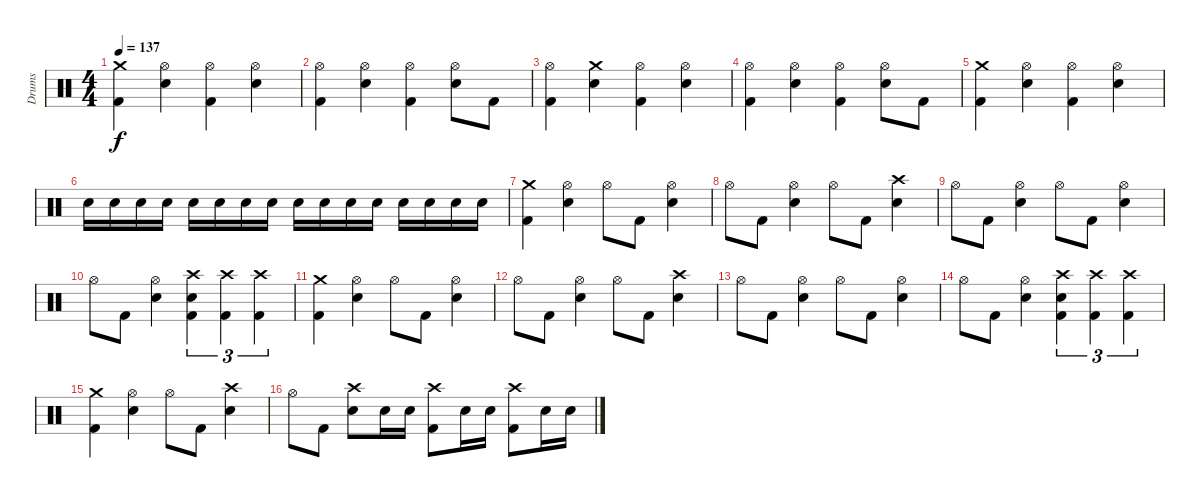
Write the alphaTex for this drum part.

\track ("Drums" "Drums") {instrument percussion}
\staff {score}
\articulation defaults
\ts (4 4)
\tempo 137
\clef neutral
\ks c
("Crash medium (hit)" "Kick (hit) 2").4{dy f} ("Hi-Hat (open)" "Snare (hit) 2").4 ("Hi-Hat (open)" "Kick (hit) 2").4 ("Hi-Hat (open)" "Snare (hit) 2").4 |
("Hi-Hat (open)" "Kick (hit) 2").4 ("Hi-Hat (open)" "Snare (hit) 2").4 ("Hi-Hat (open)" "Kick (hit) 2").4 ("Hi-Hat (open)" "Snare (hit) 2").8 "Kick (hit) 2".8 |
("Hi-Hat (open)" "Kick (hit) 2").4 ("Crash medium (hit)" "Snare (hit) 2").4 ("Hi-Hat (open)" "Kick (hit) 2").4 ("Hi-Hat (open)" "Snare (hit) 2").4 |
("Hi-Hat (open)" "Kick (hit) 2").4 ("Hi-Hat (open)" "Snare (hit) 2").4 ("Hi-Hat (open)" "Kick (hit) 2").4 ("Hi-Hat (open)" "Snare (hit) 2").8 "Kick (hit) 2".8 |
("Crash medium (hit)" "Kick (hit) 2").4 ("Hi-Hat (open)" "Snare (hit) 2").4 ("Hi-Hat (open)" "Kick (hit) 2").4 ("Hi-Hat (open)" "Snare (hit) 2").4 |
"Snare (hit) 2".16 "Snare (hit) 2".16 "Snare (hit) 2".16 "Snare (hit) 2".16 "Snare (hit) 2".16 "Snare (hit) 2".16 "Snare (hit) 2".16 "Snare (hit) 2".16 "Snare (hit) 2".16 "Snare (hit) 2".16 "Snare (hit) 2".16 "Snare (hit) 2".16 "Snare (hit) 2".16 "Snare (hit) 2".16 "Snare (hit) 2".16 "Snare (hit) 2".16 |
("Crash medium (hit)" "Kick (hit) 2").4 ("Hi-Hat (open)" "Snare (hit) 2").4 "Hi-Hat (open)".8 "Kick (hit) 2".8 ("Hi-Hat (open)" "Snare (hit) 2").4 |
"Hi-Hat (open)".8 "Kick (hit) 2".8 ("Hi-Hat (open)" "Snare (hit) 2").4 "Hi-Hat (open)".8 "Kick (hit) 2".8 ("Crash high (hit)" "Snare (hit) 2").4 |
"Hi-Hat (open)".8 "Kick (hit) 2".8 ("Hi-Hat (open)" "Snare (hit) 2").4 "Hi-Hat (open)".8 "Kick (hit) 2".8 ("Hi-Hat (open)" "Snare (hit) 2").4 |
"Hi-Hat (open)".8 "Kick (hit) 2".8 ("Hi-Hat (open)" "Snare (hit) 2").4 ("Crash high (hit)" "Snare (hit) 2" "Kick (hit) 2").4{tu (3 2)} ("Crash high (hit)" "Kick (hit) 2").4{tu (3 2)} ("Crash high (hit)" "Kick (hit) 2").4{tu (3 2)} |
("Crash medium (hit)" "Kick (hit) 2").4 ("Hi-Hat (open)" "Snare (hit) 2").4 "Hi-Hat (open)".8 "Kick (hit) 2".8 ("Hi-Hat (open)" "Snare (hit) 2").4 |
"Hi-Hat (open)".8 "Kick (hit) 2".8 ("Hi-Hat (open)" "Snare (hit) 2").4 "Hi-Hat (open)".8 "Kick (hit) 2".8 ("Crash high (hit)" "Snare (hit) 2").4 |
"Hi-Hat (open)".8 "Kick (hit) 2".8 ("Hi-Hat (open)" "Snare (hit) 2").4 "Hi-Hat (open)".8 "Kick (hit) 2".8 ("Hi-Hat (open)" "Snare (hit) 2").4 |
"Hi-Hat (open)".8 "Kick (hit) 2".8 ("Hi-Hat (open)" "Snare (hit) 2").4 ("Crash high (hit)" "Snare (hit) 2" "Kick (hit) 2").4{tu (3 2)} ("Crash high (hit)" "Kick (hit) 2").4{tu (3 2)} ("Crash high (hit)" "Kick (hit) 2").4{tu (3 2)} |
("Crash medium (hit)" "Kick (hit) 2").4 ("Hi-Hat (open)" "Snare (hit) 2").4 "Hi-Hat (open)".8 "Kick (hit) 2".8 ("Crash high (hit)" "Snare (hit) 2").4 |
"Hi-Hat (open)".8 "Kick (hit) 2".8 ("Crash high (hit)" "Snare (hit) 2").8 "Snare (hit) 2".16 "Snare (hit) 2".16 ("Crash high (hit)" "Kick (hit) 2").8 "Snare (hit) 2".16 "Snare (hit) 2".16 ("Crash high (hit)" "Kick (hit) 2").8 "Snare (hit) 2".16 "Snare (hit) 2".16
